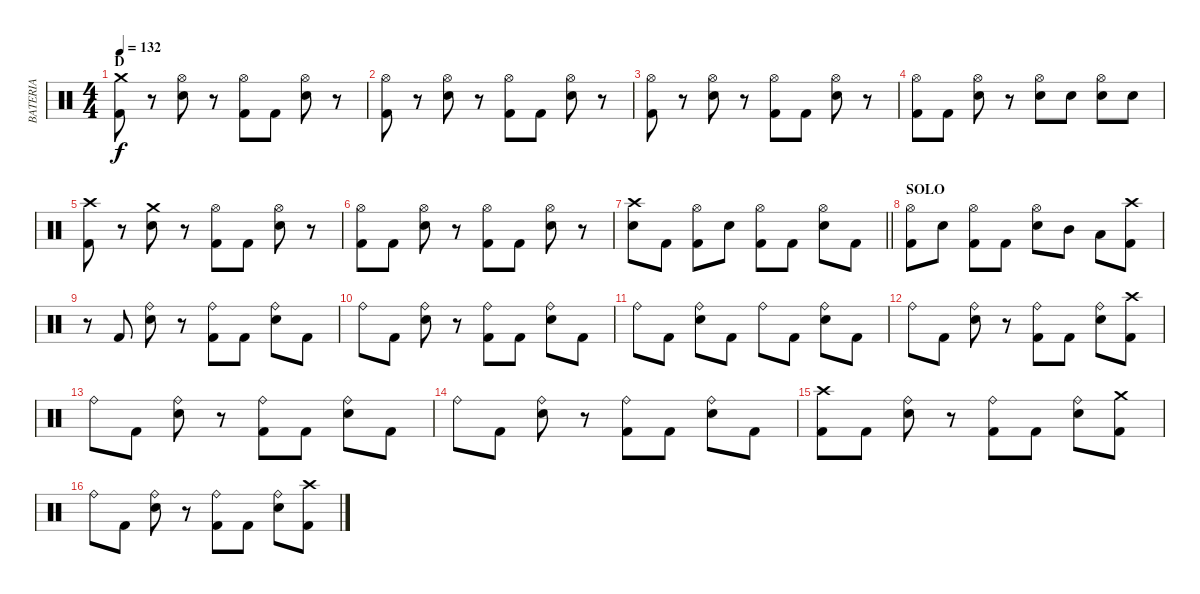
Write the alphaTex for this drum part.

\track ("BATERIA" "BATERIA") {instrument percussion}
\staff {score}
\articulation defaults
\ts (4 4)
\section ("" "D")
\tempo 132
\clef neutral
\ks c
("Kick (hit) 2" "Crash medium (hit)").8{dy f} r.8 ("Hi-Hat (open)" "Electric Snare (hit)").8 r.8 ("Kick (hit) 2" "Hi-Hat (open)").8 "Kick (hit) 2".8 ("Hi-Hat (open)" "Electric Snare (hit)").8 r.8 |
("Kick (hit) 2" "Hi-Hat (open)").8 r.8 ("Hi-Hat (open)" "Electric Snare (hit)").8 r.8 ("Kick (hit) 2" "Hi-Hat (open)").8 "Kick (hit) 2".8 ("Hi-Hat (open)" "Electric Snare (hit)").8 r.8 |
("Kick (hit) 2" "Hi-Hat (open)").8 r.8 ("Hi-Hat (open)" "Electric Snare (hit)").8 r.8 ("Kick (hit) 2" "Hi-Hat (open)").8 "Kick (hit) 2".8 ("Hi-Hat (open)" "Electric Snare (hit)").8 r.8 |
("Kick (hit) 2" "Hi-Hat (open)").8 "Kick (hit) 2".8 ("Hi-Hat (open)" "Electric Snare (hit)").8 r.8 ("Hi-Hat (open)" "Electric Snare (hit)").8 "Electric Snare (hit)".8 ("Hi-Hat (open)" "Electric Snare (hit)").8 "Electric Snare (hit)".8 |
("Kick (hit) 2" "Crash high (hit)").8 r.8 ("Crash medium (hit)" "Electric Snare (hit)").8 r.8 ("Kick (hit) 2" "Hi-Hat (open)").8 "Kick (hit) 2".8 ("Hi-Hat (open)" "Electric Snare (hit)").8 r.8 |
("Kick (hit) 2" "Hi-Hat (open)").8 "Kick (hit) 2".8 ("Hi-Hat (open)" "Electric Snare (hit)").8 r.8 ("Kick (hit) 2" "Hi-Hat (open)").8 "Kick (hit) 2".8 ("Hi-Hat (open)" "Electric Snare (hit)").8 r.8 |
\barLineRight lightlight
("Crash high (hit)" "Electric Snare (hit)").8 "Kick (hit) 2".8 ("Kick (hit) 2" "Hi-Hat (open)").8 "Electric Snare (hit)".8 ("Kick (hit) 2" "Hi-Hat (open)").8 "Kick (hit) 2".8 ("Hi-Hat (open)" "Electric Snare (hit)").8 "Kick (hit) 2".8 |
\section ("" "SOLO")
("Kick (hit) 2" "Hi-Hat (open)").8 "Electric Snare (hit)".8 ("Kick (hit) 2" "Hi-Hat (open)").8 "Kick (hit) 2".8 ("Hi-Hat (open)" "Electric Snare (hit)").8 "Mid Tom (hit)".8 "Low Tom (hit)".8 ("Kick (hit) 2" "Crash high (hit)").8 |
r.8 "Kick (hit) 2".8 ("Ride (bell)" "Electric Snare (hit)").8 r.8 ("Kick (hit) 2" "Ride (bell)").8 "Kick (hit) 2".8 ("Ride (bell)" "Electric Snare (hit)").8 "Kick (hit) 2".8 |
"Ride (bell)".8 "Kick (hit) 2".8 ("Ride (bell)" "Electric Snare (hit)").8 r.8 ("Kick (hit) 2" "Ride (bell)").8 "Kick (hit) 2".8 ("Ride (bell)" "Electric Snare (hit)").8 "Kick (hit) 2".8 |
"Ride (bell)".8 "Kick (hit) 2".8 ("Ride (bell)" "Electric Snare (hit)").8 "Kick (hit) 2".8 "Ride (bell)".8 "Kick (hit) 2".8 ("Ride (bell)" "Electric Snare (hit)").8 "Kick (hit) 2".8 |
"Ride (bell)".8 "Kick (hit) 2".8 ("Ride (bell)" "Electric Snare (hit)").8 r.8 ("Kick (hit) 2" "Ride (bell)").8 "Kick (hit) 2".8 ("Ride (bell)" "Electric Snare (hit)").8 ("Kick (hit) 2" "Crash high (hit)").8 |
"Ride (bell)".8 "Kick (hit) 2".8 ("Ride (bell)" "Electric Snare (hit)").8 r.8 ("Kick (hit) 2" "Ride (bell)").8 "Kick (hit) 2".8 ("Ride (bell)" "Electric Snare (hit)").8 "Kick (hit) 2".8 |
"Ride (bell)".8 "Kick (hit) 2".8 ("Ride (bell)" "Electric Snare (hit)").8 r.8 ("Kick (hit) 2" "Ride (bell)").8 "Kick (hit) 2".8 ("Ride (bell)" "Electric Snare (hit)").8 "Kick (hit) 2".8 |
("Kick (hit) 2" "Crash high (hit)").8 "Kick (hit) 2".8 ("Ride (bell)" "Electric Snare (hit)").8 r.8 ("Kick (hit) 2" "Ride (bell)").8 "Kick (hit) 2".8 ("Ride (bell)" "Electric Snare (hit)").8 ("Kick (hit) 2" "Crash medium (hit)").8 |
"Ride (bell)".8 "Kick (hit) 2".8 ("Ride (bell)" "Electric Snare (hit)").8 r.8 ("Kick (hit) 2" "Ride (bell)").8 "Kick (hit) 2".8 ("Ride (bell)" "Electric Snare (hit)").8 ("Kick (hit) 2" "Crash high (hit)").8
